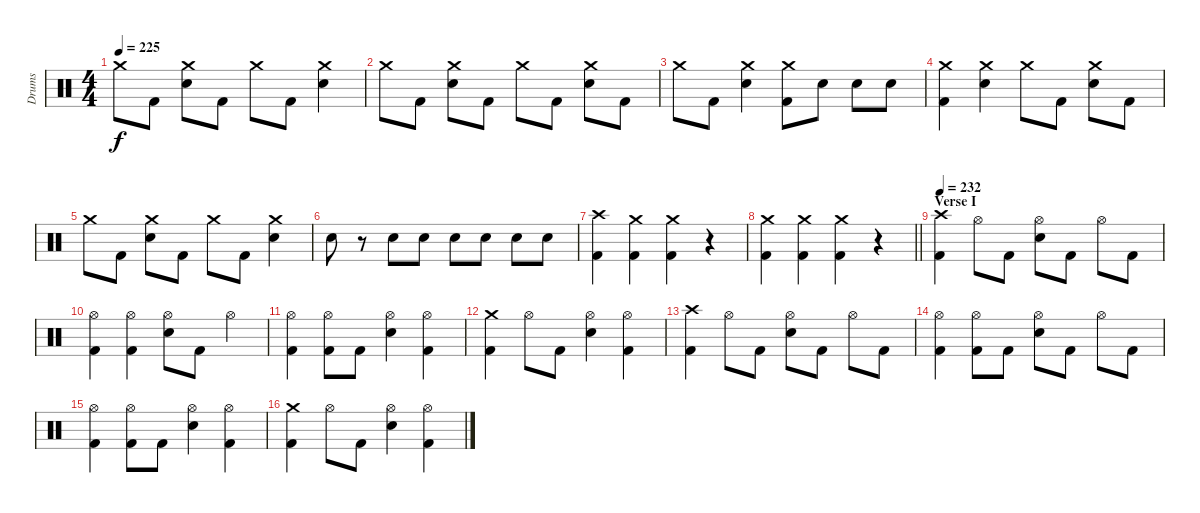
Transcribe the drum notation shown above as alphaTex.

\track ("Drums" "Drums") {instrument percussion}
\staff {score}
\articulation defaults
\ts (4 4)
\tempo 225
\clef neutral
\ks c "Crash medium (hit)".8{dy f} "Kick (hit) 2".8
("Crash medium (hit)" "Snare (hit) 2").8 "Kick (hit) 2".8 "Crash medium (hit)".8 "Kick (hit) 2".8 ("Crash medium (hit)" "Snare (hit) 2").4 |
"Crash medium (hit)".8 "Kick (hit) 2".8 ("Crash medium (hit)" "Snare (hit) 2").8 "Kick (hit) 2".8 "Crash medium (hit)".8 "Kick (hit) 2".8 ("Crash medium (hit)" "Snare (hit) 2").8 "Kick (hit) 2".8 |
"Crash medium (hit)".8 "Kick (hit) 2".8 ("Crash medium (hit)" "Snare (hit) 2").4 ("Crash medium (hit)" "Kick (hit) 2").8 "Snare (hit) 2".8 "Snare (hit) 2".8 "Snare (hit) 2".8 |
("Crash medium (hit)" "Kick (hit) 2").4 ("Crash medium (hit)" "Snare (hit) 2").4 "Crash medium (hit)".8 "Kick (hit) 2".8 ("Crash medium (hit)" "Snare (hit) 2").8 "Kick (hit) 2".8 |
"Crash medium (hit)".8 "Kick (hit) 2".8 ("Crash medium (hit)" "Snare (hit) 2").8 "Kick (hit) 2".8 "Crash medium (hit)".8 "Kick (hit) 2".8 ("Crash medium (hit)" "Snare (hit) 2").4 |
"Snare (hit) 2".8 r.8 "Snare (hit) 2".8 "Snare (hit) 2".8 "Snare (hit) 2".8 "Snare (hit) 2".8 "Snare (hit) 2".8 "Snare (hit) 2".8 |
("Crash high (hit)" "Kick (hit) 2").4 ("Crash medium (hit)" "Kick (hit) 2").4 ("Crash medium (hit)" "Kick (hit) 2").4 r.4 |
\barLineRight lightlight
("Crash medium (hit)" "Kick (hit) 2").4 ("Crash medium (hit)" "Kick (hit) 2").4 ("Crash medium (hit)" "Kick (hit) 2").4 r.4 |
\section ("" "Verse I")
\tempo 232
("Crash high (hit)" "Kick (hit) 2").4 "Hi-Hat (open)".8 "Kick (hit) 2".8 ("Hi-Hat (open)" "Snare (hit) 2").8 "Kick (hit) 2".8 "Hi-Hat (open)".8 "Kick (hit) 2".8 |
("Hi-Hat (open)" "Kick (hit) 2").4 ("Hi-Hat (open)" "Kick (hit) 2").4 ("Hi-Hat (open)" "Snare (hit) 2").8 "Kick (hit) 2".8 "Hi-Hat (open)".4 |
("Hi-Hat (open)" "Kick (hit) 2").4 ("Hi-Hat (open)" "Kick (hit) 2").8 "Kick (hit) 2".8 ("Hi-Hat (open)" "Snare (hit) 2").4 ("Hi-Hat (open)" "Kick (hit) 2").4 |
("Crash medium (hit)" "Kick (hit) 2").4 "Hi-Hat (open)".8 "Kick (hit) 2".8 ("Hi-Hat (open)" "Snare (hit) 2").4 ("Hi-Hat (open)" "Kick (hit) 2").4 |
("Crash high (hit)" "Kick (hit) 2").4 "Hi-Hat (open)".8 "Kick (hit) 2".8 ("Hi-Hat (open)" "Snare (hit) 2").8 "Kick (hit) 2".8 "Hi-Hat (open)".8 "Kick (hit) 2".8 |
("Hi-Hat (open)" "Kick (hit) 2").4 ("Hi-Hat (open)" "Kick (hit) 2").8 "Kick (hit) 2".8 ("Hi-Hat (open)" "Snare (hit) 2").8 "Kick (hit) 2".8 "Hi-Hat (open)".8 "Kick (hit) 2".8 |
("Hi-Hat (open)" "Kick (hit) 2").4 ("Hi-Hat (open)" "Kick (hit) 2").8 "Kick (hit) 2".8 ("Hi-Hat (open)" "Snare (hit) 2").4 ("Hi-Hat (open)" "Kick (hit) 2").4 |
("Crash medium (hit)" "Kick (hit) 2").4 "Hi-Hat (open)".8 "Kick (hit) 2".8 ("Hi-Hat (open)" "Snare (hit) 2").4 ("Hi-Hat (open)" "Kick (hit) 2").4
